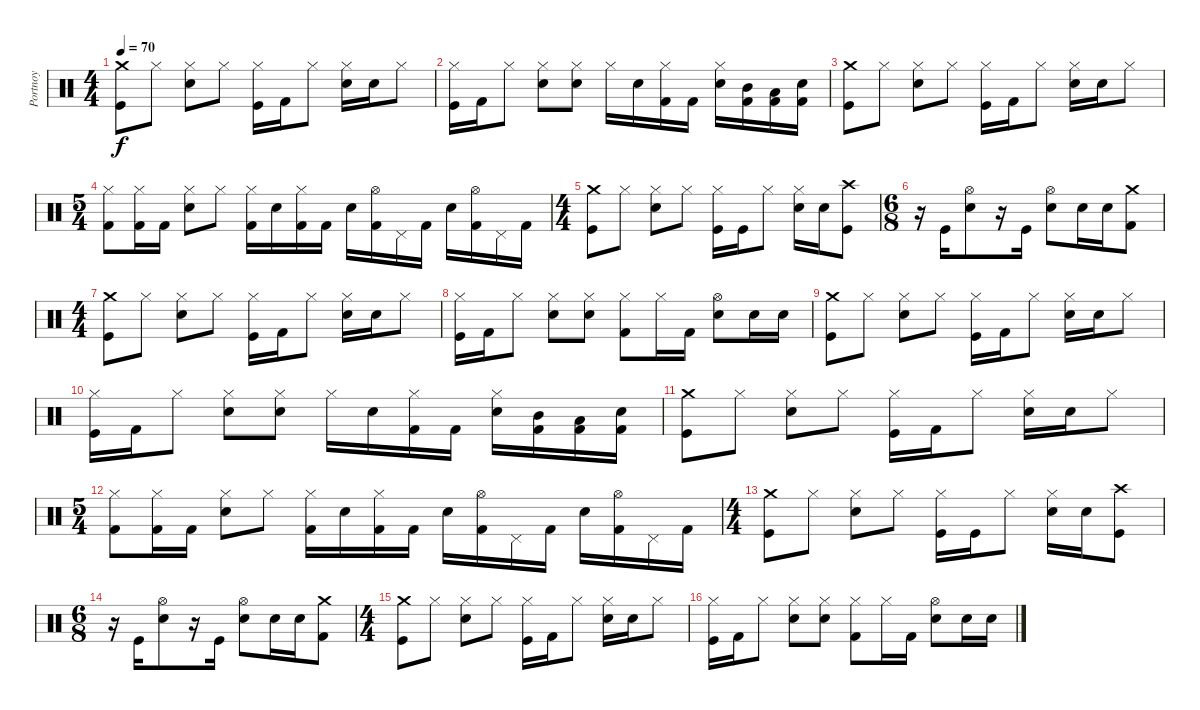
\track ("Portnoy" "Portnoy") {instrument percussion}
\staff {score}
\articulation defaults
\ts (4 4)
\tempo 70
\clef neutral
\ks c
("Crash medium (hit)" "Kick (hit)").8{dy f} "Hi-Hat (closed)".8 ("Electric Snare (hit)" "Hi-Hat (closed)").8 "Hi-Hat (closed)".8 ("Kick (hit)" "Hi-Hat (closed)").16 "Kick (hit) 2".16 "Hi-Hat (closed)".8 ("Hi-Hat (closed)" "Electric Snare (hit)").16 "Electric Snare (hit)".16 "Hi-Hat (closed)".8 |
("Kick (hit)" "Hi-Hat (closed)").16 "Kick (hit) 2".16 "Hi-Hat (closed)".8 ("Hi-Hat (closed)" "Electric Snare (hit)").8 ("Hi-Hat (closed)" "Electric Snare (hit)").8 "Hi-Hat (closed)".16 "Electric Snare (hit)".16 ("Hi-Hat (closed)" "Kick (hit) 2").16 "Kick (hit) 2".16 ("Hi-Hat (closed)" "Electric Snare (hit)").16 ("Kick (hit) 2" "Mid Tom (hit)").16 ("Low Tom (hit)" "Kick (hit) 2").16 ("Electric Snare (hit)" "Kick (hit) 2").16 |
("Crash medium (hit)" "Kick (hit)").8 "Hi-Hat (closed)".8 ("Electric Snare (hit)" "Hi-Hat (closed)").8 "Hi-Hat (closed)".8 ("Kick (hit)" "Hi-Hat (closed)").16 "Kick (hit) 2".16 "Hi-Hat (closed)".8 ("Hi-Hat (closed)" "Electric Snare (hit)").16 "Electric Snare (hit)".16 "Hi-Hat (closed)".8 |
\ts (5 4)
("Hi-Hat (closed)" "Kick (hit) 2").8 ("Kick (hit) 2" "Hi-Hat (closed)").16 "Kick (hit) 2".16 ("Electric Snare (hit)" "Hi-Hat (closed)").8 "Hi-Hat (closed)".8 ("Hi-Hat (closed)" "Kick (hit) 2").16 "Electric Snare (hit)".16 ("Hi-Hat (closed)" "Kick (hit) 2").16 "Kick (hit) 2".16 "Electric Snare (hit)".16 ("Kick (hit) 2" "Hi-Hat (open)").16 "Pedal Hi-Hat (hit)".16 "Kick (hit) 2".16 "Electric Snare (hit)".16 ("Kick (hit) 2" "Hi-Hat (open)").16 "Pedal Hi-Hat (hit)".16 "Kick (hit) 2".16 |
\ts (4 4)
("Crash medium (hit)" "Kick (hit)").8 "Hi-Hat (closed)".8 ("Electric Snare (hit)" "Hi-Hat (closed)").8 "Hi-Hat (closed)".8 ("Kick (hit)" "Hi-Hat (closed)").16 "Kick (hit)".16 "Hi-Hat (closed)".8 ("Hi-Hat (closed)" "Electric Snare (hit)").16 "Electric Snare (hit)".16 ("Crash high (hit)" "Kick (hit)").8 |
\ts (6 8)
r.16 "Kick (hit)".16 ("Hi-Hat (open)" "Electric Snare (hit)").8 r.16 "Kick (hit)".16 ("Hi-Hat (open)" "Electric Snare (hit)").8 "Electric Snare (hit)".16 "Electric Snare (hit)".16 ("Crash medium (hit)" "Kick (hit) 2").8 |
\ts (4 4)
("Crash medium (hit)" "Kick (hit)").8{volume 15} "Hi-Hat (closed)".8 ("Electric Snare (hit)" "Hi-Hat (closed)").8 "Hi-Hat (closed)".8 ("Kick (hit)" "Hi-Hat (closed)").16 "Kick (hit) 2".16 "Hi-Hat (closed)".8 ("Hi-Hat (closed)" "Electric Snare (hit)").16 "Electric Snare (hit)".16 "Hi-Hat (closed)".8 |
("Kick (hit)" "Hi-Hat (closed)").16 "Kick (hit) 2".16 "Hi-Hat (closed)".8 ("Hi-Hat (closed)" "Electric Snare (hit)").8 ("Hi-Hat (closed)" "Electric Snare (hit)").8 ("Kick (hit) 2" "Hi-Hat (closed)").8 "Hi-Hat (closed)".16 "Kick (hit) 2".16 ("Hi-Hat (open)" "Electric Snare (hit)").8 "Electric Snare (hit)".16 "Electric Snare (hit)".16 |
("Crash medium (hit)" "Kick (hit)").8 "Hi-Hat (closed)".8 ("Electric Snare (hit)" "Hi-Hat (closed)").8 "Hi-Hat (closed)".8 ("Kick (hit)" "Hi-Hat (closed)").16 "Kick (hit) 2".16 "Hi-Hat (closed)".8 ("Hi-Hat (closed)" "Electric Snare (hit)").16 "Electric Snare (hit)".16 "Hi-Hat (closed)".8 |
("Kick (hit)" "Hi-Hat (closed)").16 "Kick (hit) 2".16 "Hi-Hat (closed)".8 ("Hi-Hat (closed)" "Electric Snare (hit)").8 ("Hi-Hat (closed)" "Electric Snare (hit)").8 "Hi-Hat (closed)".16 "Electric Snare (hit)".16 ("Hi-Hat (closed)" "Kick (hit) 2").16 "Kick (hit) 2".16 ("Hi-Hat (closed)" "Electric Snare (hit)").16 ("Kick (hit) 2" "Mid Tom (hit)").16 ("Low Tom (hit)" "Kick (hit) 2").16 ("Electric Snare (hit)" "Kick (hit) 2").16 |
("Crash medium (hit)" "Kick (hit)").8 "Hi-Hat (closed)".8 ("Electric Snare (hit)" "Hi-Hat (closed)").8 "Hi-Hat (closed)".8 ("Kick (hit)" "Hi-Hat (closed)").16 "Kick (hit) 2".16 "Hi-Hat (closed)".8 ("Hi-Hat (closed)" "Electric Snare (hit)").16 "Electric Snare (hit)".16 "Hi-Hat (closed)".8 |
\ts (5 4)
("Hi-Hat (closed)" "Kick (hit) 2").8 ("Kick (hit) 2" "Hi-Hat (closed)").16 "Kick (hit) 2".16 ("Electric Snare (hit)" "Hi-Hat (closed)").8 "Hi-Hat (closed)".8 ("Hi-Hat (closed)" "Kick (hit) 2").16 "Electric Snare (hit)".16 ("Hi-Hat (closed)" "Kick (hit) 2").16 "Kick (hit) 2".16 "Electric Snare (hit)".16 ("Kick (hit) 2" "Hi-Hat (open)").16 "Pedal Hi-Hat (hit)".16 "Kick (hit) 2".16 "Electric Snare (hit)".16 ("Kick (hit) 2" "Hi-Hat (open)").16 "Pedal Hi-Hat (hit)".16 "Kick (hit) 2".16 |
\ts (4 4)
("Crash medium (hit)" "Kick (hit)").8 "Hi-Hat (closed)".8 ("Electric Snare (hit)" "Hi-Hat (closed)").8 "Hi-Hat (closed)".8 ("Kick (hit)" "Hi-Hat (closed)").16 "Kick (hit)".16 "Hi-Hat (closed)".8 ("Hi-Hat (closed)" "Electric Snare (hit)").16 "Electric Snare (hit)".16 ("Crash high (hit)" "Kick (hit)").8 |
\ts (6 8)
r.16 "Kick (hit)".16 ("Hi-Hat (open)" "Electric Snare (hit)").8 r.16 "Kick (hit)".16 ("Hi-Hat (open)" "Electric Snare (hit)").8 "Electric Snare (hit)".16 "Electric Snare (hit)".16 ("Crash medium (hit)" "Kick (hit) 2").8 |
\ts (4 4)
("Crash medium (hit)" "Kick (hit)").8{volume 8} "Hi-Hat (closed)".8 ("Electric Snare (hit)" "Hi-Hat (closed)").8 "Hi-Hat (closed)".8 ("Kick (hit)" "Hi-Hat (closed)").16 "Kick (hit) 2".16 "Hi-Hat (closed)".8 ("Hi-Hat (closed)" "Electric Snare (hit)").16 "Electric Snare (hit)".16 "Hi-Hat (closed)".8 |
("Kick (hit)" "Hi-Hat (closed)").16 "Kick (hit) 2".16 "Hi-Hat (closed)".8 ("Hi-Hat (closed)" "Electric Snare (hit)").8 ("Hi-Hat (closed)" "Electric Snare (hit)").8 ("Kick (hit) 2" "Hi-Hat (closed)").8 "Hi-Hat (closed)".16 "Kick (hit) 2".16 ("Hi-Hat (open)" "Electric Snare (hit)").8 "Electric Snare (hit)".16 "Electric Snare (hit)".16
